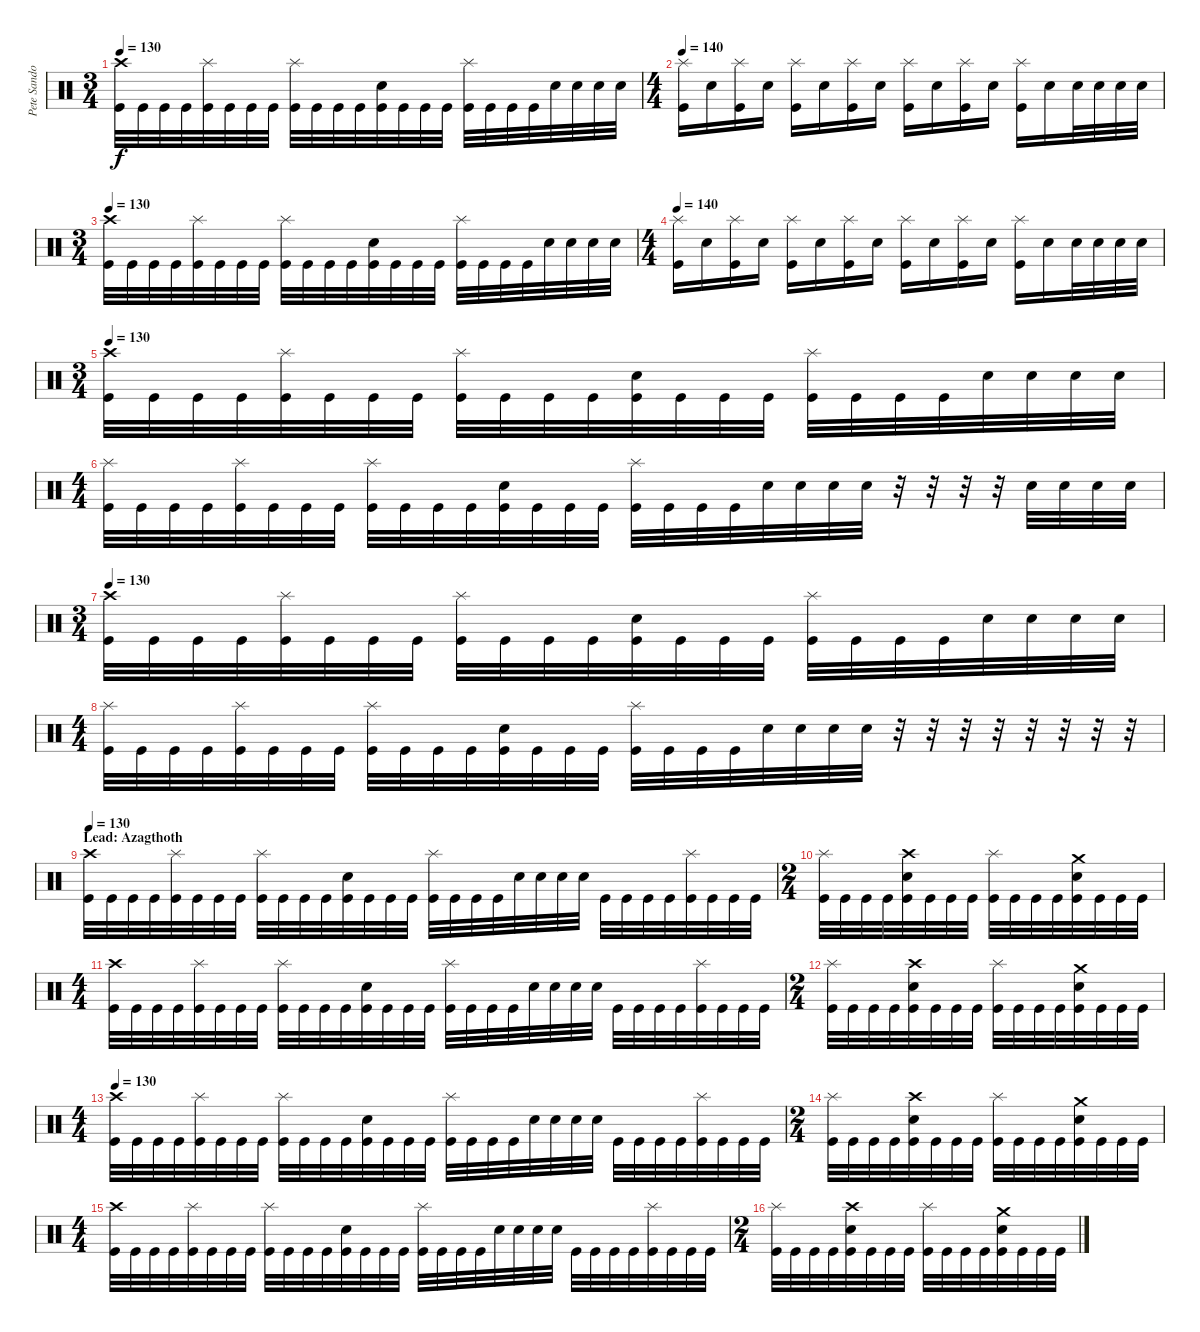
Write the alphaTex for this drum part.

\track ("Pete Sandoval" "Pete Sando") {instrument percussion}
\staff {score}
\articulation defaults
\ts (3 4)
\tempo 130
\clef neutral
\ks c
("Crash high (hit)" "Kick (hit)").32{dy f} "Kick (hit)".32 "Kick (hit)".32 "Kick (hit)".32 ("Splash (hit)" "Kick (hit)").32 "Kick (hit)".32 "Kick (hit)".32 "Kick (hit)".32 ("Splash (hit)" "Kick (hit)").32 "Kick (hit)".32 "Kick (hit)".32 "Kick (hit)".32 ("Electric Snare (hit)" "Kick (hit)").32 "Kick (hit)".32 "Kick (hit)".32 "Kick (hit)".32 ("Splash (hit)" "Kick (hit)").32 "Kick (hit)".32 "Kick (hit)".32 "Kick (hit)".32 "Electric Snare (hit)".32 "Electric Snare (hit)".32 "Electric Snare (hit)".32 "Electric Snare (hit)".32 |
\ts (4 4)
\tempo 140
("Splash (hit)" "Kick (hit)").16 "Electric Snare (hit)".16 ("Splash (hit)" "Kick (hit)").16 "Electric Snare (hit)".16 ("Splash (hit)" "Kick (hit)").16 "Electric Snare (hit)".16 ("Splash (hit)" "Kick (hit)").16 "Electric Snare (hit)".16 ("Splash (hit)" "Kick (hit)").16 "Electric Snare (hit)".16 ("Splash (hit)" "Kick (hit)").16 "Electric Snare (hit)".16 ("Splash (hit)" "Kick (hit)").16 "Electric Snare (hit)".16 "Electric Snare (hit)".32 "Electric Snare (hit)".32 "Electric Snare (hit)".32 "Electric Snare (hit)".32 |
\ts (3 4)
\tempo 130
("Crash high (hit)" "Kick (hit)").32 "Kick (hit)".32 "Kick (hit)".32 "Kick (hit)".32 ("Splash (hit)" "Kick (hit)").32 "Kick (hit)".32 "Kick (hit)".32 "Kick (hit)".32 ("Splash (hit)" "Kick (hit)").32 "Kick (hit)".32 "Kick (hit)".32 "Kick (hit)".32 ("Electric Snare (hit)" "Kick (hit)").32 "Kick (hit)".32 "Kick (hit)".32 "Kick (hit)".32 ("Splash (hit)" "Kick (hit)").32 "Kick (hit)".32 "Kick (hit)".32 "Kick (hit)".32 "Electric Snare (hit)".32 "Electric Snare (hit)".32 "Electric Snare (hit)".32 "Electric Snare (hit)".32 |
\ts (4 4)
\tempo 140
("Splash (hit)" "Kick (hit)").16 "Electric Snare (hit)".16 ("Splash (hit)" "Kick (hit)").16 "Electric Snare (hit)".16 ("Splash (hit)" "Kick (hit)").16 "Electric Snare (hit)".16 ("Splash (hit)" "Kick (hit)").16 "Electric Snare (hit)".16 ("Splash (hit)" "Kick (hit)").16 "Electric Snare (hit)".16 ("Splash (hit)" "Kick (hit)").16 "Electric Snare (hit)".16 ("Splash (hit)" "Kick (hit)").16 "Electric Snare (hit)".16 "Electric Snare (hit)".32 "Electric Snare (hit)".32 "Electric Snare (hit)".32 "Electric Snare (hit)".32 |
\ts (3 4)
\tempo 130
("Crash high (hit)" "Kick (hit)").32 "Kick (hit)".32 "Kick (hit)".32 "Kick (hit)".32 ("Splash (hit)" "Kick (hit)").32 "Kick (hit)".32 "Kick (hit)".32 "Kick (hit)".32 ("Splash (hit)" "Kick (hit)").32 "Kick (hit)".32 "Kick (hit)".32 "Kick (hit)".32 ("Electric Snare (hit)" "Kick (hit)").32 "Kick (hit)".32 "Kick (hit)".32 "Kick (hit)".32 ("Splash (hit)" "Kick (hit)").32 "Kick (hit)".32 "Kick (hit)".32 "Kick (hit)".32 "Electric Snare (hit)".32 "Electric Snare (hit)".32 "Electric Snare (hit)".32 "Electric Snare (hit)".32 |
\ts (4 4)
("Splash (hit)" "Kick (hit)").32 "Kick (hit)".32 "Kick (hit)".32 "Kick (hit)".32 ("Splash (hit)" "Kick (hit)").32 "Kick (hit)".32 "Kick (hit)".32 "Kick (hit)".32 ("Splash (hit)" "Kick (hit)").32 "Kick (hit)".32 "Kick (hit)".32 "Kick (hit)".32 ("Electric Snare (hit)" "Kick (hit)").32 "Kick (hit)".32 "Kick (hit)".32 "Kick (hit)".32 ("Splash (hit)" "Kick (hit)").32 "Kick (hit)".32 "Kick (hit)".32 "Kick (hit)".32 "Electric Snare (hit)".32 "Electric Snare (hit)".32 "Electric Snare (hit)".32 "Electric Snare (hit)".32 r.32 r.32 r.32 r.32 "Electric Snare (hit)".32 "Electric Snare (hit)".32 "Electric Snare (hit)".32 "Electric Snare (hit)".32 |
\ts (3 4)
\tempo 130
("Crash high (hit)" "Kick (hit)").32 "Kick (hit)".32 "Kick (hit)".32 "Kick (hit)".32 ("Splash (hit)" "Kick (hit)").32 "Kick (hit)".32 "Kick (hit)".32 "Kick (hit)".32 ("Splash (hit)" "Kick (hit)").32 "Kick (hit)".32 "Kick (hit)".32 "Kick (hit)".32 ("Electric Snare (hit)" "Kick (hit)").32 "Kick (hit)".32 "Kick (hit)".32 "Kick (hit)".32 ("Splash (hit)" "Kick (hit)").32 "Kick (hit)".32 "Kick (hit)".32 "Kick (hit)".32 "Electric Snare (hit)".32 "Electric Snare (hit)".32 "Electric Snare (hit)".32 "Electric Snare (hit)".32 |
\ts (4 4)
("Splash (hit)" "Kick (hit)").32 "Kick (hit)".32 "Kick (hit)".32 "Kick (hit)".32 ("Splash (hit)" "Kick (hit)").32 "Kick (hit)".32 "Kick (hit)".32 "Kick (hit)".32 ("Splash (hit)" "Kick (hit)").32 "Kick (hit)".32 "Kick (hit)".32 "Kick (hit)".32 ("Electric Snare (hit)" "Kick (hit)").32 "Kick (hit)".32 "Kick (hit)".32 "Kick (hit)".32 ("Splash (hit)" "Kick (hit)").32 "Kick (hit)".32 "Kick (hit)".32 "Kick (hit)".32 "Electric Snare (hit)".32 "Electric Snare (hit)".32 "Electric Snare (hit)".32 "Electric Snare (hit)".32 r.32 r.32 r.32 r.32 r.32 r.32 r.32 r.32 |
\section ("" "Lead: Azagthoth")
\tempo 130
("Crash high (hit)" "Kick (hit)").32 "Kick (hit)".32 "Kick (hit)".32 "Kick (hit)".32 ("Splash (hit)" "Kick (hit)").32 "Kick (hit)".32 "Kick (hit)".32 "Kick (hit)".32 ("Splash (hit)" "Kick (hit)").32 "Kick (hit)".32 "Kick (hit)".32 "Kick (hit)".32 ("Electric Snare (hit)" "Kick (hit)").32 "Kick (hit)".32 "Kick (hit)".32 "Kick (hit)".32 ("Splash (hit)" "Kick (hit)").32 "Kick (hit)".32 "Kick (hit)".32 "Kick (hit)".32 "Electric Snare (hit)".32 "Electric Snare (hit)".32 "Electric Snare (hit)".32 "Electric Snare (hit)".32 "Kick (hit)".32 "Kick (hit)".32 "Kick (hit)".32 "Kick (hit)".32 ("Splash (hit)" "Kick (hit)").32 "Kick (hit)".32 "Kick (hit)".32 "Kick (hit)".32 |
\ts (2 4)
("Splash (hit)" "Kick (hit)").32 "Kick (hit)".32 "Kick (hit)".32 "Kick (hit)".32 ("Crash high (hit)" "Electric Snare (hit)" "Kick (hit)").32 "Kick (hit)".32 "Kick (hit)".32 "Kick (hit)".32 ("Splash (hit)" "Kick (hit)").32 "Kick (hit)".32 "Kick (hit)".32 "Kick (hit)".32 ("Crash medium (hit)" "Electric Snare (hit)" "Kick (hit)").32 "Kick (hit)".32 "Kick (hit)".32 "Kick (hit)".32 |
\ts (4 4)
("Crash high (hit)" "Kick (hit)").32 "Kick (hit)".32 "Kick (hit)".32 "Kick (hit)".32 ("Splash (hit)" "Kick (hit)").32 "Kick (hit)".32 "Kick (hit)".32 "Kick (hit)".32 ("Splash (hit)" "Kick (hit)").32 "Kick (hit)".32 "Kick (hit)".32 "Kick (hit)".32 ("Electric Snare (hit)" "Kick (hit)").32 "Kick (hit)".32 "Kick (hit)".32 "Kick (hit)".32 ("Splash (hit)" "Kick (hit)").32 "Kick (hit)".32 "Kick (hit)".32 "Kick (hit)".32 "Electric Snare (hit)".32 "Electric Snare (hit)".32 "Electric Snare (hit)".32 "Electric Snare (hit)".32 "Kick (hit)".32 "Kick (hit)".32 "Kick (hit)".32 "Kick (hit)".32 ("Splash (hit)" "Kick (hit)").32 "Kick (hit)".32 "Kick (hit)".32 "Kick (hit)".32 |
\ts (2 4)
("Splash (hit)" "Kick (hit)").32 "Kick (hit)".32 "Kick (hit)".32 "Kick (hit)".32 ("Crash high (hit)" "Electric Snare (hit)" "Kick (hit)").32 "Kick (hit)".32 "Kick (hit)".32 "Kick (hit)".32 ("Splash (hit)" "Kick (hit)").32 "Kick (hit)".32 "Kick (hit)".32 "Kick (hit)".32 ("Crash medium (hit)" "Electric Snare (hit)" "Kick (hit)").32 "Kick (hit)".32 "Kick (hit)".32 "Kick (hit)".32 |
\ts (4 4)
\tempo 130
("Crash high (hit)" "Kick (hit)").32 "Kick (hit)".32 "Kick (hit)".32 "Kick (hit)".32 ("Splash (hit)" "Kick (hit)").32 "Kick (hit)".32 "Kick (hit)".32 "Kick (hit)".32 ("Splash (hit)" "Kick (hit)").32 "Kick (hit)".32 "Kick (hit)".32 "Kick (hit)".32 ("Electric Snare (hit)" "Kick (hit)").32 "Kick (hit)".32 "Kick (hit)".32 "Kick (hit)".32 ("Splash (hit)" "Kick (hit)").32 "Kick (hit)".32 "Kick (hit)".32 "Kick (hit)".32 "Electric Snare (hit)".32 "Electric Snare (hit)".32 "Electric Snare (hit)".32 "Electric Snare (hit)".32 "Kick (hit)".32 "Kick (hit)".32 "Kick (hit)".32 "Kick (hit)".32 ("Splash (hit)" "Kick (hit)").32 "Kick (hit)".32 "Kick (hit)".32 "Kick (hit)".32 |
\ts (2 4)
("Splash (hit)" "Kick (hit)").32 "Kick (hit)".32 "Kick (hit)".32 "Kick (hit)".32 ("Crash high (hit)" "Electric Snare (hit)" "Kick (hit)").32 "Kick (hit)".32 "Kick (hit)".32 "Kick (hit)".32 ("Splash (hit)" "Kick (hit)").32 "Kick (hit)".32 "Kick (hit)".32 "Kick (hit)".32 ("Crash medium (hit)" "Electric Snare (hit)" "Kick (hit)").32 "Kick (hit)".32 "Kick (hit)".32 "Kick (hit)".32 |
\ts (4 4)
("Crash high (hit)" "Kick (hit)").32 "Kick (hit)".32 "Kick (hit)".32 "Kick (hit)".32 ("Splash (hit)" "Kick (hit)").32 "Kick (hit)".32 "Kick (hit)".32 "Kick (hit)".32 ("Splash (hit)" "Kick (hit)").32 "Kick (hit)".32 "Kick (hit)".32 "Kick (hit)".32 ("Electric Snare (hit)" "Kick (hit)").32 "Kick (hit)".32 "Kick (hit)".32 "Kick (hit)".32 ("Splash (hit)" "Kick (hit)").32 "Kick (hit)".32 "Kick (hit)".32 "Kick (hit)".32 "Electric Snare (hit)".32 "Electric Snare (hit)".32 "Electric Snare (hit)".32 "Electric Snare (hit)".32 "Kick (hit)".32 "Kick (hit)".32 "Kick (hit)".32 "Kick (hit)".32 ("Splash (hit)" "Kick (hit)").32 "Kick (hit)".32 "Kick (hit)".32 "Kick (hit)".32 |
\ts (2 4)
("Splash (hit)" "Kick (hit)").32 "Kick (hit)".32 "Kick (hit)".32 "Kick (hit)".32 ("Crash high (hit)" "Electric Snare (hit)" "Kick (hit)").32 "Kick (hit)".32 "Kick (hit)".32 "Kick (hit)".32 ("Splash (hit)" "Kick (hit)").32 "Kick (hit)".32 "Kick (hit)".32 "Kick (hit)".32 ("Crash medium (hit)" "Electric Snare (hit)" "Kick (hit)").32 "Kick (hit)".32 "Kick (hit)".32 "Kick (hit)".32
